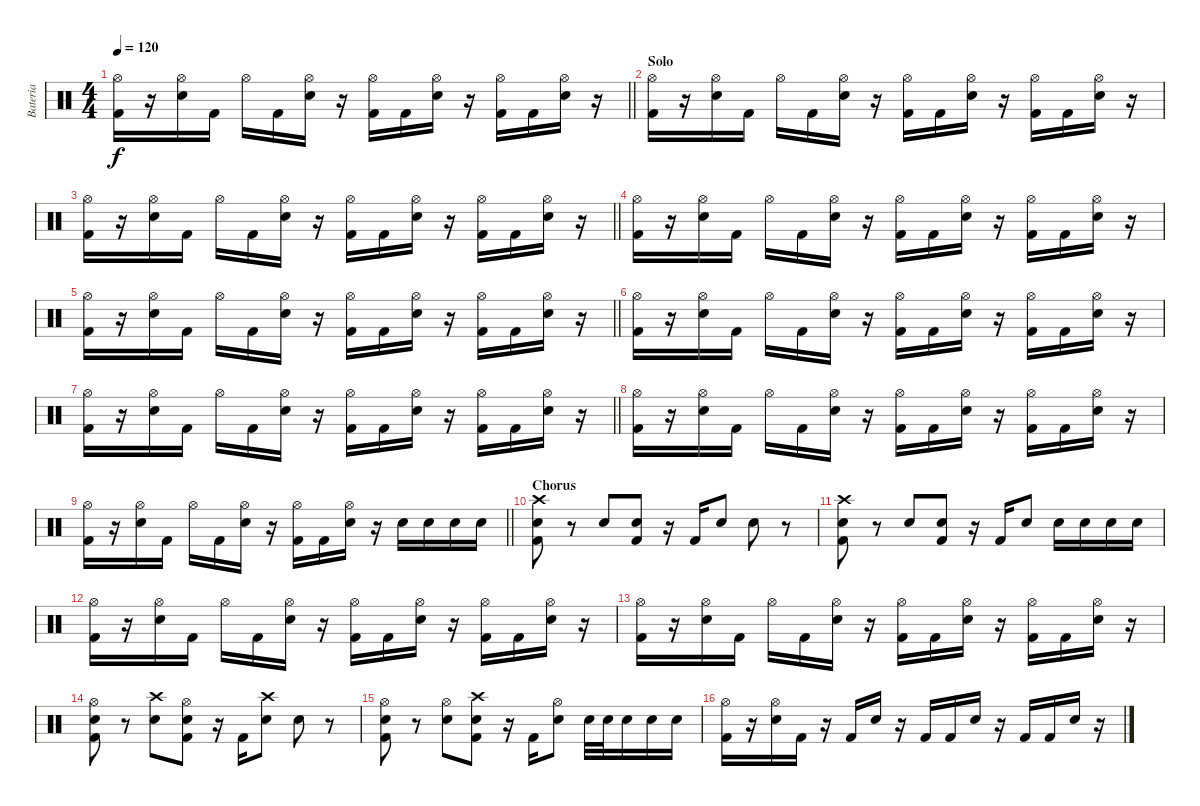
\track ("Bateria" "Bateria") {instrument percussion}
\staff {score}
\articulation defaults
\ts (4 4)
\tempo 120
\clef neutral
\barLineRight lightlight
\ks c
("Hi-Hat (open)" "Kick (hit) 2").16{dy f} r.16 ("Hi-Hat (open)" "Electric Snare (hit)").16 "Kick (hit) 2".16 "Hi-Hat (open)".16 "Kick (hit) 2".16 ("Hi-Hat (open)" "Electric Snare (hit)").16 r.16 ("Hi-Hat (open)" "Kick (hit) 2").16 "Kick (hit) 2".16 ("Hi-Hat (open)" "Electric Snare (hit)").16 r.16 ("Hi-Hat (open)" "Kick (hit) 2").16 "Kick (hit) 2".16 ("Hi-Hat (open)" "Electric Snare (hit)").16 r.16 |
\section ("" "Solo")
("Hi-Hat (open)" "Kick (hit) 2").16 r.16 ("Hi-Hat (open)" "Electric Snare (hit)").16 "Kick (hit) 2".16 "Hi-Hat (open)".16 "Kick (hit) 2".16 ("Hi-Hat (open)" "Electric Snare (hit)").16 r.16 ("Hi-Hat (open)" "Kick (hit) 2").16 "Kick (hit) 2".16 ("Hi-Hat (open)" "Electric Snare (hit)").16 r.16 ("Hi-Hat (open)" "Kick (hit) 2").16 "Kick (hit) 2".16 ("Hi-Hat (open)" "Electric Snare (hit)").16 r.16 |
\barLineRight lightlight
("Hi-Hat (open)" "Kick (hit) 2").16 r.16 ("Hi-Hat (open)" "Electric Snare (hit)").16 "Kick (hit) 2".16 "Hi-Hat (open)".16 "Kick (hit) 2".16 ("Hi-Hat (open)" "Electric Snare (hit)").16 r.16 ("Hi-Hat (open)" "Kick (hit) 2").16 "Kick (hit) 2".16 ("Hi-Hat (open)" "Electric Snare (hit)").16 r.16 ("Hi-Hat (open)" "Kick (hit) 2").16 "Kick (hit) 2".16 ("Hi-Hat (open)" "Electric Snare (hit)").16 r.16 |
("Hi-Hat (open)" "Kick (hit) 2").16 r.16 ("Hi-Hat (open)" "Electric Snare (hit)").16 "Kick (hit) 2".16 "Hi-Hat (open)".16 "Kick (hit) 2".16 ("Hi-Hat (open)" "Electric Snare (hit)").16 r.16 ("Hi-Hat (open)" "Kick (hit) 2").16 "Kick (hit) 2".16 ("Hi-Hat (open)" "Electric Snare (hit)").16 r.16 ("Hi-Hat (open)" "Kick (hit) 2").16 "Kick (hit) 2".16 ("Hi-Hat (open)" "Electric Snare (hit)").16 r.16 |
\barLineRight lightlight
("Hi-Hat (open)" "Kick (hit) 2").16 r.16 ("Hi-Hat (open)" "Electric Snare (hit)").16 "Kick (hit) 2".16 "Hi-Hat (open)".16 "Kick (hit) 2".16 ("Hi-Hat (open)" "Electric Snare (hit)").16 r.16 ("Hi-Hat (open)" "Kick (hit) 2").16 "Kick (hit) 2".16 ("Hi-Hat (open)" "Electric Snare (hit)").16 r.16 ("Hi-Hat (open)" "Kick (hit) 2").16 "Kick (hit) 2".16 ("Hi-Hat (open)" "Electric Snare (hit)").16 r.16 |
("Hi-Hat (open)" "Kick (hit) 2").16 r.16 ("Hi-Hat (open)" "Electric Snare (hit)").16 "Kick (hit) 2".16 "Hi-Hat (open)".16 "Kick (hit) 2".16 ("Hi-Hat (open)" "Electric Snare (hit)").16 r.16 ("Hi-Hat (open)" "Kick (hit) 2").16 "Kick (hit) 2".16 ("Hi-Hat (open)" "Electric Snare (hit)").16 r.16 ("Hi-Hat (open)" "Kick (hit) 2").16 "Kick (hit) 2".16 ("Hi-Hat (open)" "Electric Snare (hit)").16 r.16 |
\barLineRight lightlight
("Hi-Hat (open)" "Kick (hit) 2").16 r.16 ("Hi-Hat (open)" "Electric Snare (hit)").16 "Kick (hit) 2".16 "Hi-Hat (open)".16 "Kick (hit) 2".16 ("Hi-Hat (open)" "Electric Snare (hit)").16 r.16 ("Hi-Hat (open)" "Kick (hit) 2").16 "Kick (hit) 2".16 ("Hi-Hat (open)" "Electric Snare (hit)").16 r.16 ("Hi-Hat (open)" "Kick (hit) 2").16 "Kick (hit) 2".16 ("Hi-Hat (open)" "Electric Snare (hit)").16 r.16 |
("Hi-Hat (open)" "Kick (hit) 2").16 r.16 ("Hi-Hat (open)" "Electric Snare (hit)").16 "Kick (hit) 2".16 "Hi-Hat (open)".16 "Kick (hit) 2".16 ("Hi-Hat (open)" "Electric Snare (hit)").16 r.16 ("Hi-Hat (open)" "Kick (hit) 2").16 "Kick (hit) 2".16 ("Hi-Hat (open)" "Electric Snare (hit)").16 r.16 ("Hi-Hat (open)" "Kick (hit) 2").16 "Kick (hit) 2".16 ("Hi-Hat (open)" "Electric Snare (hit)").16 r.16 |
\barLineRight lightlight
("Hi-Hat (open)" "Kick (hit) 2").16 r.16 ("Hi-Hat (open)" "Electric Snare (hit)").16 "Kick (hit) 2".16 "Hi-Hat (open)".16 "Kick (hit) 2".16 ("Hi-Hat (open)" "Electric Snare (hit)").16 r.16 ("Hi-Hat (open)" "Kick (hit) 2").16 "Kick (hit) 2".16 ("Hi-Hat (open)" "Electric Snare (hit)").16 r.16 "Electric Snare (hit)".16 "Electric Snare (hit)".16 "Electric Snare (hit)".16 "Electric Snare (hit)".16 |
\section ("" "Chorus")
("Crash high (hit)" "Electric Snare (hit)" "Kick (hit) 2").8 r.8 "Electric Snare (hit)".8 ("Electric Snare (hit)" "Kick (hit) 2").8 r.16 "Kick (hit) 2".16 "Electric Snare (hit)".8 "Electric Snare (hit)".8 r.8 |
("Crash high (hit)" "Electric Snare (hit)" "Kick (hit) 2").8 r.8 "Electric Snare (hit)".8 ("Electric Snare (hit)" "Kick (hit) 2").8 r.16 "Kick (hit) 2".16 "Electric Snare (hit)".8 "Electric Snare (hit)".16 "Electric Snare (hit)".16 "Electric Snare (hit)".16 "Electric Snare (hit)".16 |
("Hi-Hat (open)" "Kick (hit) 2").16 r.16 ("Hi-Hat (open)" "Electric Snare (hit)").16 "Kick (hit) 2".16 "Hi-Hat (open)".16 "Kick (hit) 2".16 ("Hi-Hat (open)" "Electric Snare (hit)").16 r.16 ("Hi-Hat (open)" "Kick (hit) 2").16 "Kick (hit) 2".16 ("Hi-Hat (open)" "Electric Snare (hit)").16 r.16 ("Hi-Hat (open)" "Kick (hit) 2").16 "Kick (hit) 2".16 ("Hi-Hat (open)" "Electric Snare (hit)").16 r.16 |
("Hi-Hat (open)" "Kick (hit) 2").16 r.16 ("Hi-Hat (open)" "Electric Snare (hit)").16 "Kick (hit) 2".16 "Hi-Hat (open)".16 "Kick (hit) 2".16 ("Hi-Hat (open)" "Electric Snare (hit)").16 r.16 ("Hi-Hat (open)" "Kick (hit) 2").16 "Kick (hit) 2".16 ("Hi-Hat (open)" "Electric Snare (hit)").16 r.16 ("Hi-Hat (open)" "Kick (hit) 2").16 "Kick (hit) 2".16 ("Hi-Hat (open)" "Electric Snare (hit)").16 r.16 |
("Hi-Hat (open)" "Electric Snare (hit)" "Kick (hit) 2").8 r.8 ("Crash high (hit)" "Electric Snare (hit)").8 ("Hi-Hat (open)" "Electric Snare (hit)" "Kick (hit) 2").8 r.16 "Kick (hit) 2".16 ("Crash high (hit)" "Electric Snare (hit)").8 "Electric Snare (hit)".8 r.8 |
("Hi-Hat (open)" "Electric Snare (hit)" "Kick (hit) 2").8 r.8 ("Hi-Hat (open)" "Electric Snare (hit)").8 ("Crash high (hit)" "Electric Snare (hit)" "Kick (hit) 2").8 r.16 "Kick (hit) 2".16 ("Hi-Hat (open)" "Electric Snare (hit)").8 "Electric Snare (hit)".32 "Electric Snare (hit)".32 "Electric Snare (hit)".16 "Electric Snare (hit)".16 "Electric Snare (hit)".16 |
("Hi-Hat (open)" "Kick (hit) 2").16 r.16 ("Hi-Hat (open)" "Electric Snare (hit)").16 "Kick (hit) 2".16 r.16 "Kick (hit) 2".16 "Electric Snare (hit)".16 r.16 "Kick (hit) 2".16 "Kick (hit) 2".16 "Electric Snare (hit)".16 r.16 "Kick (hit) 2".16 "Kick (hit) 2".16 "Electric Snare (hit)".16 r.16
